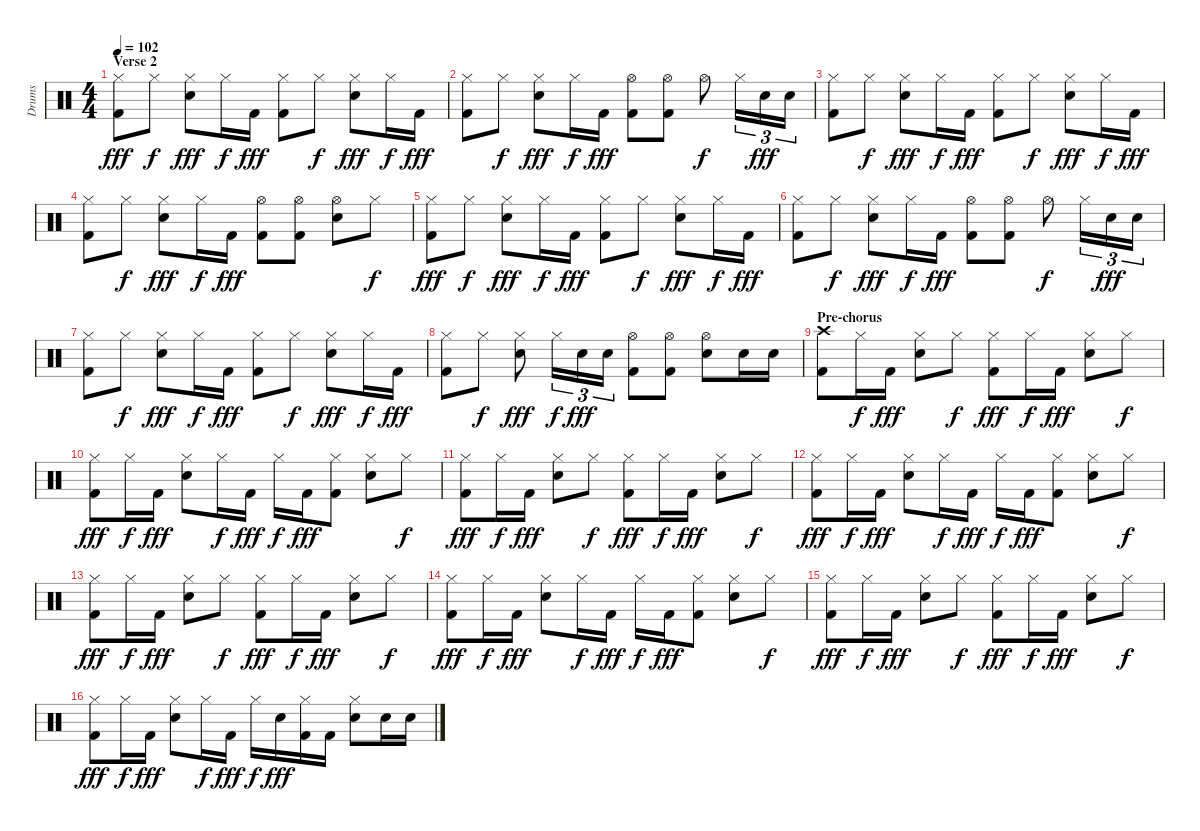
\track ("Drums" "Drums") {instrument percussion}
\staff {score}
\articulation defaults
\ts (4 4)
\section ("" "Verse 2")
\tempo 102
\clef neutral
\ks c
("Hi-Hat (closed)" "Kick (hit) 2").8{dy fff} "Hi-Hat (closed)".8{dy f} ("Hi-Hat (closed)" "Electric Snare (hit)").8{dy fff} "Hi-Hat (closed)".16{dy f} "Kick (hit) 2".16{dy fff} ("Hi-Hat (closed)" "Kick (hit) 2").8 "Hi-Hat (closed)".8{dy f} ("Hi-Hat (closed)" "Electric Snare (hit)").8{dy fff} "Hi-Hat (closed)".16{dy f} "Kick (hit) 2".16{dy fff} |
("Hi-Hat (closed)" "Kick (hit) 2").8 "Hi-Hat (closed)".8{dy f} ("Hi-Hat (closed)" "Electric Snare (hit)").8{dy fff} "Hi-Hat (closed)".16{dy f} "Kick (hit) 2".16{dy fff} ("Hi-Hat (open)" "Kick (hit) 2").8 ("Hi-Hat (open)" "Kick (hit) 2").8 "Hi-Hat (open)".8{dy f} "Hi-Hat (closed)".16{tu (3 2)} "Electric Snare (hit)".16{tu (3 2) dy fff} "Electric Snare (hit)".16{tu (3 2)} |
("Hi-Hat (closed)" "Kick (hit) 2").8 "Hi-Hat (closed)".8{dy f} ("Hi-Hat (closed)" "Electric Snare (hit)").8{dy fff} "Hi-Hat (closed)".16{dy f} "Kick (hit) 2".16{dy fff} ("Hi-Hat (closed)" "Kick (hit) 2").8 "Hi-Hat (closed)".8{dy f} ("Hi-Hat (closed)" "Electric Snare (hit)").8{dy fff} "Hi-Hat (closed)".16{dy f} "Kick (hit) 2".16{dy fff} |
("Hi-Hat (closed)" "Kick (hit) 2").8 "Hi-Hat (closed)".8{dy f} ("Hi-Hat (closed)" "Electric Snare (hit)").8{dy fff} "Hi-Hat (closed)".16{dy f} "Kick (hit) 2".16{dy fff} ("Hi-Hat (open)" "Kick (hit) 2").8 ("Hi-Hat (open)" "Kick (hit) 2").8 ("Hi-Hat (open)" "Electric Snare (hit)").8 "Hi-Hat (closed)".8{dy f} |
("Hi-Hat (closed)" "Kick (hit) 2").8{dy fff} "Hi-Hat (closed)".8{dy f} ("Hi-Hat (closed)" "Electric Snare (hit)").8{dy fff} "Hi-Hat (closed)".16{dy f} "Kick (hit) 2".16{dy fff} ("Hi-Hat (closed)" "Kick (hit) 2").8 "Hi-Hat (closed)".8{dy f} ("Hi-Hat (closed)" "Electric Snare (hit)").8{dy fff} "Hi-Hat (closed)".16{dy f} "Kick (hit) 2".16{dy fff} |
("Hi-Hat (closed)" "Kick (hit) 2").8 "Hi-Hat (closed)".8{dy f} ("Hi-Hat (closed)" "Electric Snare (hit)").8{dy fff} "Hi-Hat (closed)".16{dy f} "Kick (hit) 2".16{dy fff} ("Hi-Hat (open)" "Kick (hit) 2").8 ("Hi-Hat (open)" "Kick (hit) 2").8 "Hi-Hat (open)".8{dy f} "Hi-Hat (closed)".16{tu (3 2)} "Electric Snare (hit)".16{tu (3 2) dy fff} "Electric Snare (hit)".16{tu (3 2)} |
("Hi-Hat (closed)" "Kick (hit) 2").8 "Hi-Hat (closed)".8{dy f} ("Hi-Hat (closed)" "Electric Snare (hit)").8{dy fff} "Hi-Hat (closed)".16{dy f} "Kick (hit) 2".16{dy fff} ("Hi-Hat (closed)" "Kick (hit) 2").8 "Hi-Hat (closed)".8{dy f} ("Hi-Hat (closed)" "Electric Snare (hit)").8{dy fff} "Hi-Hat (closed)".16{dy f} "Kick (hit) 2".16{dy fff} |
("Hi-Hat (closed)" "Kick (hit) 2").8 "Hi-Hat (closed)".8{dy f} ("Hi-Hat (closed)" "Electric Snare (hit)").8{dy fff} "Hi-Hat (closed)".16{tu (3 2) dy f} "Electric Snare (hit)".16{tu (3 2) dy fff} "Electric Snare (hit)".16{tu (3 2)} ("Hi-Hat (open)" "Kick (hit) 2").8 ("Hi-Hat (open)" "Kick (hit) 2").8 ("Hi-Hat (open)" "Electric Snare (hit)").8 "Electric Snare (hit)".16 "Electric Snare (hit)".16 |
\section ("" "Pre-chorus")
("Crash high (hit)" "Kick (hit) 2").8 "Hi-Hat (closed)".16{dy f} "Kick (hit) 2".16{dy fff} ("Hi-Hat (closed)" "Electric Snare (hit)").8 "Hi-Hat (closed)".8{dy f} ("Hi-Hat (closed)" "Kick (hit) 2").8{dy fff} "Hi-Hat (closed)".16{dy f} "Kick (hit) 2".16{dy fff} ("Hi-Hat (closed)" "Electric Snare (hit)").8 "Hi-Hat (closed)".8{dy f} |
("Hi-Hat (closed)" "Kick (hit) 2").8{dy fff} "Hi-Hat (closed)".16{dy f} "Kick (hit) 2".16{dy fff} ("Hi-Hat (closed)" "Electric Snare (hit)").8 "Hi-Hat (closed)".16{dy f} "Kick (hit) 2".16{dy fff} "Hi-Hat (closed)".16{dy f} "Kick (hit) 2".16{dy fff} ("Hi-Hat (closed)" "Kick (hit) 2").8 ("Hi-Hat (closed)" "Electric Snare (hit)").8 "Hi-Hat (closed)".8{dy f} |
("Hi-Hat (closed)" "Kick (hit) 2").8{dy fff} "Hi-Hat (closed)".16{dy f} "Kick (hit) 2".16{dy fff} ("Hi-Hat (closed)" "Electric Snare (hit)").8 "Hi-Hat (closed)".8{dy f} ("Hi-Hat (closed)" "Kick (hit) 2").8{dy fff} "Hi-Hat (closed)".16{dy f} "Kick (hit) 2".16{dy fff} ("Hi-Hat (closed)" "Electric Snare (hit)").8 "Hi-Hat (closed)".8{dy f} |
("Hi-Hat (closed)" "Kick (hit) 2").8{dy fff} "Hi-Hat (closed)".16{dy f} "Kick (hit) 2".16{dy fff} ("Hi-Hat (closed)" "Electric Snare (hit)").8 "Hi-Hat (closed)".16{dy f} "Kick (hit) 2".16{dy fff} "Hi-Hat (closed)".16{dy f} "Kick (hit) 2".16{dy fff} ("Hi-Hat (closed)" "Kick (hit) 2").8 ("Hi-Hat (closed)" "Electric Snare (hit)").8 "Hi-Hat (closed)".8{dy f} |
("Hi-Hat (closed)" "Kick (hit) 2").8{dy fff} "Hi-Hat (closed)".16{dy f} "Kick (hit) 2".16{dy fff} ("Hi-Hat (closed)" "Electric Snare (hit)").8 "Hi-Hat (closed)".8{dy f} ("Hi-Hat (closed)" "Kick (hit) 2").8{dy fff} "Hi-Hat (closed)".16{dy f} "Kick (hit) 2".16{dy fff} ("Hi-Hat (closed)" "Electric Snare (hit)").8 "Hi-Hat (closed)".8{dy f} |
("Hi-Hat (closed)" "Kick (hit) 2").8{dy fff} "Hi-Hat (closed)".16{dy f} "Kick (hit) 2".16{dy fff} ("Hi-Hat (closed)" "Electric Snare (hit)").8 "Hi-Hat (closed)".16{dy f} "Kick (hit) 2".16{dy fff} "Hi-Hat (closed)".16{dy f} "Kick (hit) 2".16{dy fff} ("Hi-Hat (closed)" "Kick (hit) 2").8 ("Hi-Hat (closed)" "Electric Snare (hit)").8 "Hi-Hat (closed)".8{dy f} |
("Hi-Hat (closed)" "Kick (hit) 2").8{dy fff} "Hi-Hat (closed)".16{dy f} "Kick (hit) 2".16{dy fff} ("Hi-Hat (closed)" "Electric Snare (hit)").8 "Hi-Hat (closed)".8{dy f} ("Hi-Hat (closed)" "Kick (hit) 2").8{dy fff} "Hi-Hat (closed)".16{dy f} "Kick (hit) 2".16{dy fff} ("Hi-Hat (closed)" "Electric Snare (hit)").8 "Hi-Hat (closed)".8{dy f} |
("Hi-Hat (closed)" "Kick (hit) 2").8{dy fff} "Hi-Hat (closed)".16{dy f} "Kick (hit) 2".16{dy fff} ("Hi-Hat (closed)" "Electric Snare (hit)").8 "Hi-Hat (closed)".16{dy f} "Kick (hit) 2".16{dy fff} "Hi-Hat (closed)".16{dy f} "Electric Snare (hit)".16{dy fff} ("Hi-Hat (closed)" "Kick (hit) 2").16 "Kick (hit) 2".16 ("Hi-Hat (closed)" "Electric Snare (hit)").8 "Electric Snare (hit)".16 "Electric Snare (hit)".16
